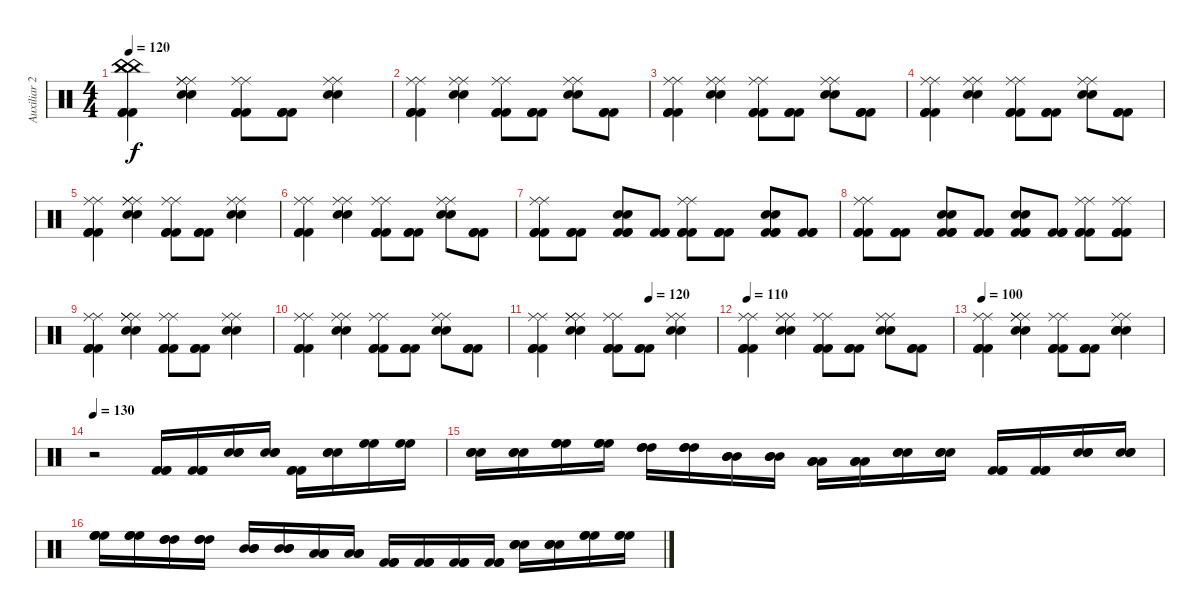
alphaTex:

\track ("Auxiliar 2" "Auxiliar 2") {instrument percussion}
\staff {score}
\articulation defaults
\ts (4 4)
\tempo 120
\clef neutral
\ks c
("Kick (hit) 2" "Kick (hit) 2" "Kick (hit) 2" "China (hit)" "China (hit)" "China (hit)").4{dy f} ("Snare (hit) 2" "Snare (hit) 2" "Ride (middle)" "Ride (middle)" "Ride (middle)").4 ("Kick (hit) 2" "Kick (hit) 2" "Kick (hit) 2" "Ride (middle)" "Ride (middle)").8 ("Kick (hit) 2" "Kick (hit) 2" "Kick (hit) 2").8 ("Snare (hit) 2" "Snare (hit) 2" "Ride (middle)" "Ride (middle)").4 |
("Kick (hit) 2" "Kick (hit) 2" "Kick (hit) 2" "Ride (middle)" "Ride (middle)").4 ("Snare (hit) 2" "Snare (hit) 2" "Ride (middle)" "Ride (middle)").4 ("Kick (hit) 2" "Kick (hit) 2" "Kick (hit) 2" "Ride (middle)" "Ride (middle)").8 ("Kick (hit) 2" "Kick (hit) 2" "Kick (hit) 2").8 ("Snare (hit) 2" "Snare (hit) 2" "Ride (middle)" "Ride (middle)").8 ("Kick (hit) 2" "Kick (hit) 2" "Kick (hit) 2").8 |
("Kick (hit) 2" "Kick (hit) 2" "Kick (hit) 2" "Ride (middle)" "Ride (middle)").4 ("Snare (hit) 2" "Snare (hit) 2" "Ride (middle)" "Ride (middle)").4 ("Kick (hit) 2" "Kick (hit) 2" "Kick (hit) 2" "Ride (middle)" "Ride (middle)").8 ("Kick (hit) 2" "Kick (hit) 2" "Kick (hit) 2").8 ("Snare (hit) 2" "Snare (hit) 2" "Ride (middle)" "Ride (middle)").8 ("Kick (hit) 2" "Kick (hit) 2" "Kick (hit) 2").8 |
("Kick (hit) 2" "Kick (hit) 2" "Kick (hit) 2" "Ride (middle)" "Ride (middle)").4 ("Snare (hit) 2" "Snare (hit) 2" "Ride (middle)" "Ride (middle)").4 ("Kick (hit) 2" "Kick (hit) 2" "Kick (hit) 2" "Ride (middle)" "Ride (middle)").8 ("Kick (hit) 2" "Kick (hit) 2" "Kick (hit) 2").8 ("Snare (hit) 2" "Snare (hit) 2" "Ride (middle)" "Ride (middle)").8 ("Kick (hit) 2" "Kick (hit) 2" "Kick (hit) 2").8 |
("Kick (hit) 2" "Kick (hit) 2" "Kick (hit) 2" "Ride (middle)" "Ride (middle)").4 ("Snare (hit) 2" "Snare (hit) 2" "Ride (middle)" "Ride (middle)" "Ride (middle)").4 ("Kick (hit) 2" "Kick (hit) 2" "Kick (hit) 2" "Ride (middle)" "Ride (middle)").8 ("Kick (hit) 2" "Kick (hit) 2" "Kick (hit) 2").8 ("Snare (hit) 2" "Snare (hit) 2" "Ride (middle)" "Ride (middle)").4 |
("Kick (hit) 2" "Kick (hit) 2" "Kick (hit) 2" "Ride (middle)" "Ride (middle)").4 ("Snare (hit) 2" "Snare (hit) 2" "Ride (middle)" "Ride (middle)").4 ("Kick (hit) 2" "Kick (hit) 2" "Kick (hit) 2" "Ride (middle)" "Ride (middle)").8 ("Kick (hit) 2" "Kick (hit) 2" "Kick (hit) 2").8 ("Snare (hit) 2" "Snare (hit) 2" "Ride (middle)" "Ride (middle)").8 ("Kick (hit) 2" "Kick (hit) 2" "Kick (hit) 2").8 |
("Kick (hit) 2" "Kick (hit) 2" "Kick (hit) 2" "Ride (middle)" "Ride (middle)").8 ("Kick (hit) 2" "Kick (hit) 2" "Kick (hit) 2").8 ("Kick (hit) 2" "Kick (hit) 2" "Kick (hit) 2" "Snare (hit) 2" "Snare (hit) 2").8 ("Kick (hit) 2" "Kick (hit) 2" "Kick (hit) 2").8 ("Kick (hit) 2" "Kick (hit) 2" "Kick (hit) 2" "Ride (middle)" "Ride (middle)").8 ("Kick (hit) 2" "Kick (hit) 2" "Kick (hit) 2").8 ("Kick (hit) 2" "Kick (hit) 2" "Kick (hit) 2" "Snare (hit) 2" "Snare (hit) 2").8 ("Kick (hit) 2" "Kick (hit) 2" "Kick (hit) 2").8 |
("Kick (hit) 2" "Kick (hit) 2" "Kick (hit) 2" "Ride (middle)" "Ride (middle)").8 ("Kick (hit) 2" "Kick (hit) 2" "Kick (hit) 2").8 ("Kick (hit) 2" "Kick (hit) 2" "Kick (hit) 2" "Snare (hit) 2" "Snare (hit) 2").8 ("Kick (hit) 2" "Kick (hit) 2" "Kick (hit) 2").8 ("Kick (hit) 2" "Kick (hit) 2" "Kick (hit) 2" "Snare (hit) 2" "Snare (hit) 2").8 ("Kick (hit) 2" "Kick (hit) 2" "Kick (hit) 2").8 ("Kick (hit) 2" "Kick (hit) 2" "Kick (hit) 2" "Ride (middle)" "Ride (middle)").8 ("Kick (hit) 2" "Kick (hit) 2" "Kick (hit) 2" "Ride (middle)" "Ride (middle)").8 |
("Kick (hit) 2" "Kick (hit) 2" "Kick (hit) 2" "Ride (middle)" "Ride (middle)").4 ("Snare (hit) 2" "Snare (hit) 2" "Ride (middle)" "Ride (middle)" "Ride (middle)").4 ("Kick (hit) 2" "Kick (hit) 2" "Kick (hit) 2" "Ride (middle)" "Ride (middle)").8 ("Kick (hit) 2" "Kick (hit) 2" "Kick (hit) 2").8 ("Snare (hit) 2" "Snare (hit) 2" "Ride (middle)" "Ride (middle)").4 |
("Kick (hit) 2" "Kick (hit) 2" "Kick (hit) 2" "Ride (middle)" "Ride (middle)").4 ("Snare (hit) 2" "Snare (hit) 2" "Ride (middle)" "Ride (middle)").4 ("Kick (hit) 2" "Kick (hit) 2" "Kick (hit) 2" "Ride (middle)" "Ride (middle)").8 ("Kick (hit) 2" "Kick (hit) 2" "Kick (hit) 2").8 ("Snare (hit) 2" "Snare (hit) 2" "Ride (middle)" "Ride (middle)").8 ("Kick (hit) 2" "Kick (hit) 2" "Kick (hit) 2").8 |
\tempo (120 0.625)
("Kick (hit) 2" "Kick (hit) 2" "Kick (hit) 2" "Ride (middle)" "Ride (middle)").4 ("Snare (hit) 2" "Snare (hit) 2" "Ride (middle)" "Ride (middle)" "Ride (middle)").4 ("Kick (hit) 2" "Kick (hit) 2" "Kick (hit) 2" "Ride (middle)" "Ride (middle)").8 ("Kick (hit) 2" "Kick (hit) 2" "Kick (hit) 2").8 ("Snare (hit) 2" "Snare (hit) 2" "Ride (middle)" "Ride (middle)").4 |
\tempo 110
("Kick (hit) 2" "Kick (hit) 2" "Kick (hit) 2" "Ride (middle)" "Ride (middle)").4 ("Snare (hit) 2" "Snare (hit) 2" "Ride (middle)" "Ride (middle)").4 ("Kick (hit) 2" "Kick (hit) 2" "Kick (hit) 2" "Ride (middle)" "Ride (middle)").8 ("Kick (hit) 2" "Kick (hit) 2" "Kick (hit) 2").8 ("Snare (hit) 2" "Snare (hit) 2" "Ride (middle)" "Ride (middle)").8 ("Kick (hit) 2" "Kick (hit) 2" "Kick (hit) 2").8 |
\tempo 100
("Kick (hit) 2" "Kick (hit) 2" "Kick (hit) 2" "Ride (middle)" "Ride (middle)").4 ("Snare (hit) 2" "Snare (hit) 2" "Ride (middle)" "Ride (middle)" "Ride (middle)").4 ("Kick (hit) 2" "Kick (hit) 2" "Kick (hit) 2" "Ride (middle)" "Ride (middle)").8 ("Kick (hit) 2" "Kick (hit) 2" "Kick (hit) 2").8 ("Snare (hit) 2" "Snare (hit) 2" "Snare (hit) 2" "Ride (middle)" "Ride (middle)").4 |
\tempo 130
r.2 ("Kick (hit) 2" "Kick (hit) 2" "Kick (hit) 2").16 ("Kick (hit) 2" "Kick (hit) 2" "Kick (hit) 2").16 ("Snare (hit) 2" "Snare (hit) 2" "Snare (hit) 2").16 ("Snare (hit) 2" "Snare (hit) 2" "Snare (hit) 2").16 ("Kick (hit) 2" "Kick (hit) 2" "Kick (hit) 2").16 ("Snare (hit) 2" "Snare (hit) 2" "Snare (hit) 2").16 ("High Floor Tom (hit)" "High Floor Tom (hit)").16 ("High Floor Tom (hit)" "High Floor Tom (hit)").16 |
("Snare (hit) 2" "Snare (hit) 2" "Snare (hit) 2").16 ("Snare (hit) 2" "Snare (hit) 2" "Snare (hit) 2").16 ("High Floor Tom (hit)" "High Floor Tom (hit)" "High Floor Tom (hit)").16 ("High Floor Tom (hit)" "High Floor Tom (hit)" "High Floor Tom (hit)").16 ("High Tom (hit)" "High Tom (hit)" "High Tom (hit)").16 ("High Tom (hit)" "High Tom (hit)" "High Tom (hit)").16 ("Mid Tom (hit)" "Mid Tom (hit)" "Mid Tom (hit)").16 ("Mid Tom (hit)" "Mid Tom (hit)" "Mid Tom (hit)").16 ("Low Tom (hit)" "Low Tom (hit)" "Low Tom (hit)").16 ("Low Tom (hit)" "Low Tom (hit)" "Low Tom (hit)").16 ("Snare (hit) 2" "Snare (hit) 2" "Snare (hit) 2").16 ("Snare (hit) 2" "Snare (hit) 2" "Snare (hit) 2").16 ("Kick (hit) 2" "Kick (hit) 2" "Kick (hit) 2").16 ("Kick (hit) 2" "Kick (hit) 2" "Kick (hit) 2").16 ("Snare (hit) 2" "Snare (hit) 2" "Snare (hit) 2").16 ("Snare (hit) 2" "Snare (hit) 2" "Snare (hit) 2").16 |
("High Floor Tom (hit)" "High Floor Tom (hit)" "High Floor Tom (hit)").16 ("High Floor Tom (hit)" "High Floor Tom (hit)" "High Floor Tom (hit)").16 ("High Tom (hit)" "High Tom (hit)" "High Tom (hit)").16 ("High Tom (hit)" "High Tom (hit)" "High Tom (hit)").16 ("Mid Tom (hit)" "Mid Tom (hit)" "Mid Tom (hit)").16 ("Mid Tom (hit)" "Mid Tom (hit)" "Mid Tom (hit)").16 ("Low Tom (hit)" "Low Tom (hit)" "Low Tom (hit)").16 ("Low Tom (hit)" "Low Tom (hit)" "Low Tom (hit)").16 ("Kick (hit) 2" "Kick (hit) 2" "Kick (hit) 2").16 ("Kick (hit) 2" "Kick (hit) 2" "Kick (hit) 2").16 ("Kick (hit) 2" "Kick (hit) 2" "Kick (hit) 2").16 ("Kick (hit) 2" "Kick (hit) 2" "Kick (hit) 2").16 ("Snare (hit) 2" "Snare (hit) 2" "Snare (hit) 2").16 ("Snare (hit) 2" "Snare (hit) 2" "Snare (hit) 2").16 ("High Floor Tom (hit)" "High Floor Tom (hit)" "High Floor Tom (hit)").16 ("High Floor Tom (hit)" "High Floor Tom (hit)" "High Floor Tom (hit)").16
